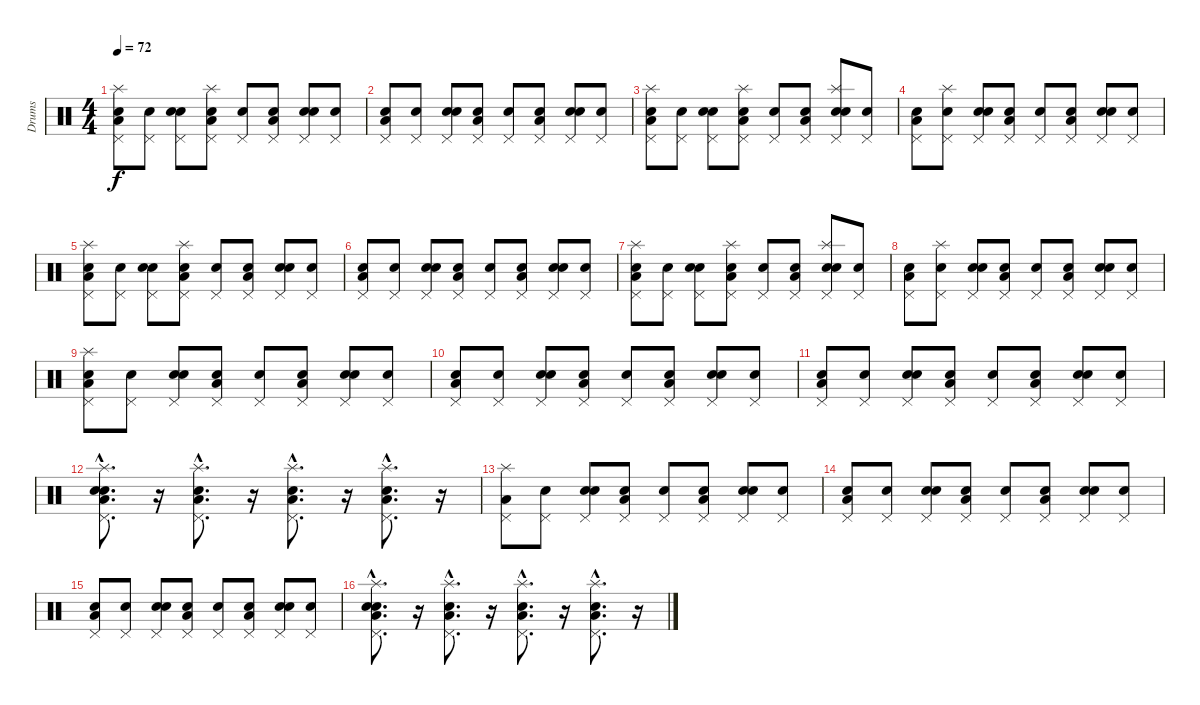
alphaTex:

\track ("Drums" "Drums") {instrument percussion}
\staff {score}
\articulation defaults
\ts (4 4)
\tempo 72
\clef neutral
\ks c
("Snare (hit)" "Low Floor Tom (hit)" "Pedal Hi-Hat (hit)" "Splash (hit)").8{dy f} ("Snare (hit)" "Pedal Hi-Hat (hit)").8 ("Snare (hit)" "Electric Snare (hit)" "Pedal Hi-Hat (hit)").8 ("Snare (hit)" "Low Floor Tom (hit)" "Pedal Hi-Hat (hit)" "Splash (hit)").8 ("Snare (hit)" "Pedal Hi-Hat (hit)").8 ("Snare (hit)" "Low Floor Tom (hit)" "Pedal Hi-Hat (hit)").8 ("Snare (hit)" "Electric Snare (hit)" "Pedal Hi-Hat (hit)").8 ("Snare (hit)" "Pedal Hi-Hat (hit)").8 |
("Snare (hit)" "Low Floor Tom (hit)" "Pedal Hi-Hat (hit)").8 ("Snare (hit)" "Pedal Hi-Hat (hit)").8 ("Snare (hit)" "Electric Snare (hit)" "Pedal Hi-Hat (hit)").8 ("Snare (hit)" "Low Floor Tom (hit)" "Pedal Hi-Hat (hit)").8 ("Snare (hit)" "Pedal Hi-Hat (hit)").8 ("Snare (hit)" "Low Floor Tom (hit)" "Pedal Hi-Hat (hit)").8 ("Snare (hit)" "Electric Snare (hit)" "Pedal Hi-Hat (hit)").8 ("Snare (hit)" "Pedal Hi-Hat (hit)").8 |
("Snare (hit)" "Low Floor Tom (hit)" "Pedal Hi-Hat (hit)" "Splash (hit)").8 ("Snare (hit)" "Pedal Hi-Hat (hit)").8 ("Snare (hit)" "Electric Snare (hit)" "Pedal Hi-Hat (hit)").8 ("Snare (hit)" "Low Floor Tom (hit)" "Pedal Hi-Hat (hit)" "Splash (hit)").8 ("Snare (hit)" "Pedal Hi-Hat (hit)").8 ("Snare (hit)" "Low Floor Tom (hit)" "Pedal Hi-Hat (hit)").8 ("Snare (hit)" "Electric Snare (hit)" "Pedal Hi-Hat (hit)" "Splash (hit)").8 ("Snare (hit)" "Pedal Hi-Hat (hit)").8 |
("Snare (hit)" "Low Floor Tom (hit)" "Pedal Hi-Hat (hit)").8 ("Snare (hit)" "Pedal Hi-Hat (hit)" "Splash (hit)").8 ("Snare (hit)" "Electric Snare (hit)" "Pedal Hi-Hat (hit)").8 ("Snare (hit)" "Low Floor Tom (hit)" "Pedal Hi-Hat (hit)").8 ("Snare (hit)" "Pedal Hi-Hat (hit)").8 ("Snare (hit)" "Low Floor Tom (hit)" "Pedal Hi-Hat (hit)").8 ("Snare (hit)" "Electric Snare (hit)" "Pedal Hi-Hat (hit)").8 ("Snare (hit)" "Pedal Hi-Hat (hit)").8 |
("Snare (hit)" "Low Floor Tom (hit)" "Pedal Hi-Hat (hit)" "Splash (hit)").8 ("Snare (hit)" "Pedal Hi-Hat (hit)").8 ("Snare (hit)" "Electric Snare (hit)" "Pedal Hi-Hat (hit)").8 ("Snare (hit)" "Low Floor Tom (hit)" "Pedal Hi-Hat (hit)" "Splash (hit)").8 ("Snare (hit)" "Pedal Hi-Hat (hit)").8 ("Snare (hit)" "Low Floor Tom (hit)" "Pedal Hi-Hat (hit)").8 ("Snare (hit)" "Electric Snare (hit)" "Pedal Hi-Hat (hit)").8 ("Snare (hit)" "Pedal Hi-Hat (hit)").8 |
("Snare (hit)" "Low Floor Tom (hit)" "Pedal Hi-Hat (hit)").8 ("Snare (hit)" "Pedal Hi-Hat (hit)").8 ("Snare (hit)" "Electric Snare (hit)" "Pedal Hi-Hat (hit)").8 ("Snare (hit)" "Low Floor Tom (hit)" "Pedal Hi-Hat (hit)").8 ("Snare (hit)" "Pedal Hi-Hat (hit)").8 ("Snare (hit)" "Low Floor Tom (hit)" "Pedal Hi-Hat (hit)").8 ("Snare (hit)" "Electric Snare (hit)" "Pedal Hi-Hat (hit)").8 ("Snare (hit)" "Pedal Hi-Hat (hit)").8 |
("Snare (hit)" "Low Floor Tom (hit)" "Pedal Hi-Hat (hit)" "Splash (hit)").8 ("Snare (hit)" "Pedal Hi-Hat (hit)").8 ("Snare (hit)" "Electric Snare (hit)" "Pedal Hi-Hat (hit)").8 ("Snare (hit)" "Low Floor Tom (hit)" "Pedal Hi-Hat (hit)" "Splash (hit)").8 ("Snare (hit)" "Pedal Hi-Hat (hit)").8 ("Snare (hit)" "Low Floor Tom (hit)" "Pedal Hi-Hat (hit)").8 ("Snare (hit)" "Electric Snare (hit)" "Pedal Hi-Hat (hit)" "Splash (hit)").8 ("Snare (hit)" "Pedal Hi-Hat (hit)").8 |
("Snare (hit)" "Low Floor Tom (hit)" "Pedal Hi-Hat (hit)").8 ("Snare (hit)" "Pedal Hi-Hat (hit)" "Splash (hit)").8 ("Snare (hit)" "Electric Snare (hit)" "Pedal Hi-Hat (hit)").8 ("Snare (hit)" "Low Floor Tom (hit)" "Pedal Hi-Hat (hit)").8 ("Snare (hit)" "Pedal Hi-Hat (hit)").8 ("Snare (hit)" "Low Floor Tom (hit)" "Pedal Hi-Hat (hit)").8 ("Snare (hit)" "Electric Snare (hit)" "Pedal Hi-Hat (hit)").8 ("Snare (hit)" "Pedal Hi-Hat (hit)").8 |
("Snare (hit)" "Low Floor Tom (hit)" "Pedal Hi-Hat (hit)" "Splash (hit)").8 ("Snare (hit)" "Pedal Hi-Hat (hit)").8 ("Snare (hit)" "Electric Snare (hit)" "Pedal Hi-Hat (hit)").8 ("Snare (hit)" "Low Floor Tom (hit)" "Pedal Hi-Hat (hit)").8 ("Snare (hit)" "Pedal Hi-Hat (hit)").8 ("Snare (hit)" "Low Floor Tom (hit)" "Pedal Hi-Hat (hit)").8 ("Snare (hit)" "Electric Snare (hit)" "Pedal Hi-Hat (hit)").8 ("Snare (hit)" "Pedal Hi-Hat (hit)").8 |
("Snare (hit)" "Low Floor Tom (hit)" "Pedal Hi-Hat (hit)").8 ("Snare (hit)" "Pedal Hi-Hat (hit)").8 ("Snare (hit)" "Electric Snare (hit)" "Pedal Hi-Hat (hit)").8 ("Snare (hit)" "Low Floor Tom (hit)" "Pedal Hi-Hat (hit)").8 ("Snare (hit)" "Pedal Hi-Hat (hit)").8 ("Snare (hit)" "Low Floor Tom (hit)" "Pedal Hi-Hat (hit)").8 ("Snare (hit)" "Electric Snare (hit)" "Pedal Hi-Hat (hit)").8 ("Snare (hit)" "Pedal Hi-Hat (hit)").8 |
("Snare (hit)" "Low Floor Tom (hit)" "Pedal Hi-Hat (hit)").8 ("Snare (hit)" "Pedal Hi-Hat (hit)").8 ("Snare (hit)" "Electric Snare (hit)" "Pedal Hi-Hat (hit)").8 ("Snare (hit)" "Low Floor Tom (hit)" "Pedal Hi-Hat (hit)").8 ("Snare (hit)" "Pedal Hi-Hat (hit)").8 ("Snare (hit)" "Low Floor Tom (hit)" "Pedal Hi-Hat (hit)").8 ("Snare (hit)" "Electric Snare (hit)" "Pedal Hi-Hat (hit)").8 ("Snare (hit)" "Pedal Hi-Hat (hit)").8 |
("Snare (hit)"{hac} "Electric Snare (hit)"{hac} "Low Floor Tom (hit)"{hac} "Pedal Hi-Hat (hit)"{hac} "Splash (hit)"{hac}).8{d} r.16 ("Electric Snare (hit)"{hac} "Low Floor Tom (hit)"{hac} "Pedal Hi-Hat (hit)"{hac} "Splash (hit)"{hac}).8{d} r.16 ("Electric Snare (hit)"{hac} "Low Floor Tom (hit)"{hac} "Pedal Hi-Hat (hit)"{hac} "Splash (hit)"{hac}).8{d} r.16 ("Electric Snare (hit)"{hac} "Low Floor Tom (hit)"{hac} "Pedal Hi-Hat (hit)"{hac} "Splash (hit)"{hac}).8{d} r.16 |
("Low Floor Tom (hit)" "Pedal Hi-Hat (hit)" "Splash (hit)").8 ("Snare (hit)" "Pedal Hi-Hat (hit)").8 ("Snare (hit)" "Electric Snare (hit)" "Pedal Hi-Hat (hit)").8 ("Snare (hit)" "Low Floor Tom (hit)" "Pedal Hi-Hat (hit)").8 ("Snare (hit)" "Pedal Hi-Hat (hit)").8 ("Snare (hit)" "Low Floor Tom (hit)" "Pedal Hi-Hat (hit)").8 ("Snare (hit)" "Electric Snare (hit)" "Pedal Hi-Hat (hit)").8 ("Snare (hit)" "Pedal Hi-Hat (hit)").8 |
("Snare (hit)" "Low Floor Tom (hit)" "Pedal Hi-Hat (hit)").8 ("Snare (hit)" "Pedal Hi-Hat (hit)").8 ("Snare (hit)" "Electric Snare (hit)" "Pedal Hi-Hat (hit)").8 ("Snare (hit)" "Low Floor Tom (hit)" "Pedal Hi-Hat (hit)").8 ("Snare (hit)" "Pedal Hi-Hat (hit)").8 ("Snare (hit)" "Low Floor Tom (hit)" "Pedal Hi-Hat (hit)").8 ("Snare (hit)" "Electric Snare (hit)" "Pedal Hi-Hat (hit)").8 ("Snare (hit)" "Pedal Hi-Hat (hit)").8 |
("Snare (hit)" "Low Floor Tom (hit)" "Pedal Hi-Hat (hit)").8 ("Snare (hit)" "Pedal Hi-Hat (hit)").8 ("Snare (hit)" "Electric Snare (hit)" "Pedal Hi-Hat (hit)").8 ("Snare (hit)" "Low Floor Tom (hit)" "Pedal Hi-Hat (hit)").8 ("Snare (hit)" "Pedal Hi-Hat (hit)").8 ("Snare (hit)" "Low Floor Tom (hit)" "Pedal Hi-Hat (hit)").8 ("Snare (hit)" "Electric Snare (hit)" "Pedal Hi-Hat (hit)").8 ("Snare (hit)" "Pedal Hi-Hat (hit)").8 |
("Snare (hit)"{hac} "Electric Snare (hit)"{hac} "Low Floor Tom (hit)"{hac} "Pedal Hi-Hat (hit)"{hac} "Splash (hit)"{hac}).8{d} r.16 ("Electric Snare (hit)"{hac} "Low Floor Tom (hit)"{hac} "Pedal Hi-Hat (hit)"{hac} "Splash (hit)"{hac}).8{d} r.16 ("Electric Snare (hit)"{hac} "Low Floor Tom (hit)"{hac} "Pedal Hi-Hat (hit)"{hac} "Splash (hit)"{hac}).8{d} r.16 ("Electric Snare (hit)"{hac} "Low Floor Tom (hit)"{hac} "Pedal Hi-Hat (hit)"{hac} "Splash (hit)"{hac}).8{d} r.16
